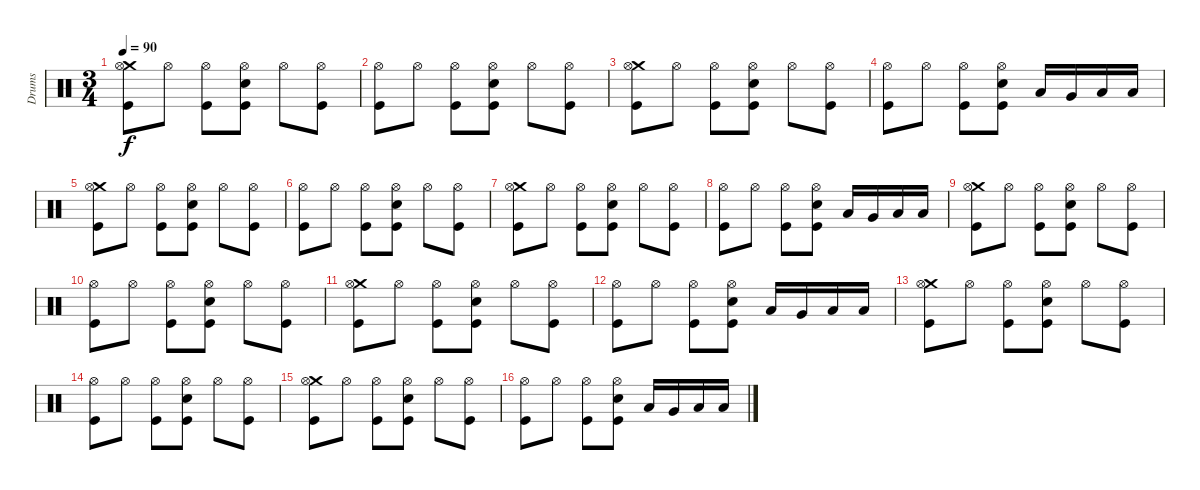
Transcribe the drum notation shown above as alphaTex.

\track ("Drums" "Drums") {instrument percussion}
\staff {score}
\articulation defaults
\ts (3 4)
\tempo 90
\clef neutral
\ks c
("Crash medium (hit)" "Hi-Hat (open)" "Kick (hit)").8{dy f} "Hi-Hat (open)".8 ("Hi-Hat (open)" "Kick (hit)").8 ("Hi-Hat (open)" "Electric Snare (hit)" "Kick (hit)").8 "Hi-Hat (open)".8 ("Hi-Hat (open)" "Kick (hit)").8 |
("Hi-Hat (open)" "Kick (hit)").8 "Hi-Hat (open)".8 ("Hi-Hat (open)" "Kick (hit)").8 ("Hi-Hat (open)" "Electric Snare (hit)" "Kick (hit)").8 "Hi-Hat (open)".8 ("Hi-Hat (open)" "Kick (hit)").8 |
("Crash medium (hit)" "Hi-Hat (open)" "Kick (hit)").8 "Hi-Hat (open)".8 ("Hi-Hat (open)" "Kick (hit)").8 ("Hi-Hat (open)" "Electric Snare (hit)" "Kick (hit)").8 "Hi-Hat (open)".8 ("Hi-Hat (open)" "Kick (hit)").8 |
("Hi-Hat (open)" "Kick (hit)").8 "Hi-Hat (open)".8 ("Hi-Hat (open)" "Kick (hit)").8 ("Hi-Hat (open)" "Electric Snare (hit)" "Kick (hit)").8 "Low Tom (hit)".16 "Very Low Tom (hit)".16 "Low Floor Tom (hit)".16 "Low Floor Tom (hit)".16 |
("Crash medium (hit)" "Hi-Hat (open)" "Kick (hit)").8 "Hi-Hat (open)".8 ("Hi-Hat (open)" "Kick (hit)").8 ("Hi-Hat (open)" "Electric Snare (hit)" "Kick (hit)").8 "Hi-Hat (open)".8 ("Hi-Hat (open)" "Kick (hit)").8 |
("Hi-Hat (open)" "Kick (hit)").8 "Hi-Hat (open)".8 ("Hi-Hat (open)" "Kick (hit)").8 ("Hi-Hat (open)" "Electric Snare (hit)" "Kick (hit)").8 "Hi-Hat (open)".8 ("Hi-Hat (open)" "Kick (hit)").8 |
("Crash medium (hit)" "Hi-Hat (open)" "Kick (hit)").8 "Hi-Hat (open)".8 ("Hi-Hat (open)" "Kick (hit)").8 ("Hi-Hat (open)" "Electric Snare (hit)" "Kick (hit)").8 "Hi-Hat (open)".8 ("Hi-Hat (open)" "Kick (hit)").8 |
("Hi-Hat (open)" "Kick (hit)").8 "Hi-Hat (open)".8 ("Hi-Hat (open)" "Kick (hit)").8 ("Hi-Hat (open)" "Electric Snare (hit)" "Kick (hit)").8 "Low Tom (hit)".16 "Very Low Tom (hit)".16 "Low Floor Tom (hit)".16 "Low Floor Tom (hit)".16 |
("Crash medium (hit)" "Hi-Hat (open)" "Kick (hit)").8 "Hi-Hat (open)".8 ("Hi-Hat (open)" "Kick (hit)").8 ("Hi-Hat (open)" "Electric Snare (hit)" "Kick (hit)").8 "Hi-Hat (open)".8 ("Hi-Hat (open)" "Kick (hit)").8 |
("Hi-Hat (open)" "Kick (hit)").8 "Hi-Hat (open)".8 ("Hi-Hat (open)" "Kick (hit)").8 ("Hi-Hat (open)" "Electric Snare (hit)" "Kick (hit)").8 "Hi-Hat (open)".8 ("Hi-Hat (open)" "Kick (hit)").8 |
("Crash medium (hit)" "Hi-Hat (open)" "Kick (hit)").8 "Hi-Hat (open)".8 ("Hi-Hat (open)" "Kick (hit)").8 ("Hi-Hat (open)" "Electric Snare (hit)" "Kick (hit)").8 "Hi-Hat (open)".8 ("Hi-Hat (open)" "Kick (hit)").8 |
("Hi-Hat (open)" "Kick (hit)").8 "Hi-Hat (open)".8 ("Hi-Hat (open)" "Kick (hit)").8 ("Hi-Hat (open)" "Electric Snare (hit)" "Kick (hit)").8 "Low Tom (hit)".16 "Very Low Tom (hit)".16 "Low Floor Tom (hit)".16 "Low Floor Tom (hit)".16 |
("Crash medium (hit)" "Hi-Hat (open)" "Kick (hit)").8 "Hi-Hat (open)".8 ("Hi-Hat (open)" "Kick (hit)").8 ("Hi-Hat (open)" "Electric Snare (hit)" "Kick (hit)").8 "Hi-Hat (open)".8 ("Hi-Hat (open)" "Kick (hit)").8 |
("Hi-Hat (open)" "Kick (hit)").8 "Hi-Hat (open)".8 ("Hi-Hat (open)" "Kick (hit)").8 ("Hi-Hat (open)" "Electric Snare (hit)" "Kick (hit)").8 "Hi-Hat (open)".8 ("Hi-Hat (open)" "Kick (hit)").8 |
("Crash medium (hit)" "Hi-Hat (open)" "Kick (hit)").8 "Hi-Hat (open)".8 ("Hi-Hat (open)" "Kick (hit)").8 ("Hi-Hat (open)" "Electric Snare (hit)" "Kick (hit)").8 "Hi-Hat (open)".8 ("Hi-Hat (open)" "Kick (hit)").8 |
("Hi-Hat (open)" "Kick (hit)").8 "Hi-Hat (open)".8 ("Hi-Hat (open)" "Kick (hit)").8 ("Hi-Hat (open)" "Electric Snare (hit)" "Kick (hit)").8 "Low Tom (hit)".16 "Very Low Tom (hit)".16 "Low Floor Tom (hit)".16 "Low Floor Tom (hit)".16
